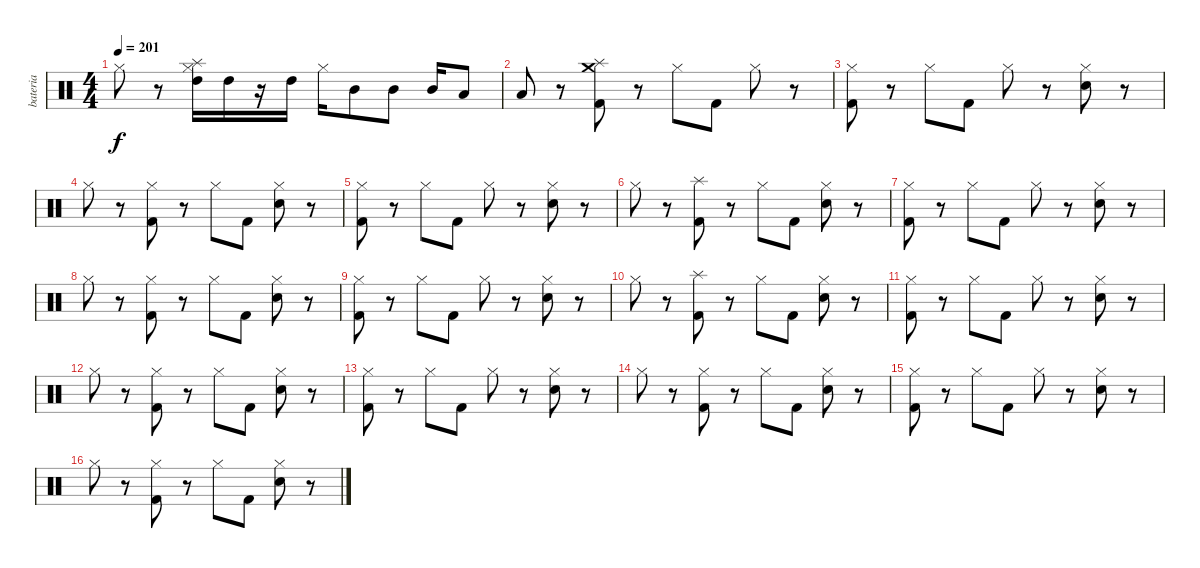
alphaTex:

\track ("bateria" "bateria") {instrument percussion}
\staff {score}
\articulation defaults
\ts (4 4)
\tempo 201
\clef neutral
\ks c "Hi-Hat (closed)".8{dy f}
r.8 ("High Tom (hit)" "Splash (hit)" "Hi-Hat (closed)").16 "High Tom (hit)".16 r.16 "High Tom (hit)".16 "Hi-Hat (closed)".16 "Mid Tom (hit)".8 "Mid Tom (hit)".8 "Mid Tom (hit)".16 "Low Tom (hit)".8 |
"Low Tom (hit)".8 r.8 ("Crash medium (hit)" "Splash (hit)" "Kick (hit) 2").8 r.8 "Hi-Hat (closed)".8 "Kick (hit) 2".8 "Hi-Hat (closed)".8 r.8 |
("Hi-Hat (closed)" "Kick (hit) 2").8 r.8 "Hi-Hat (closed)".8 "Kick (hit) 2".8 "Hi-Hat (closed)".8 r.8 ("Hi-Hat (closed)" "Electric Snare (hit)").8 r.8 |
"Hi-Hat (closed)".8 r.8 ("Hi-Hat (closed)" "Kick (hit) 2").8 r.8 "Hi-Hat (closed)".8 "Kick (hit) 2".8 ("Hi-Hat (closed)" "Electric Snare (hit)").8 r.8 |
("Hi-Hat (closed)" "Kick (hit) 2").8 r.8 "Hi-Hat (closed)".8 "Kick (hit) 2".8 "Hi-Hat (closed)".8 r.8 ("Hi-Hat (closed)" "Electric Snare (hit)").8 r.8 |
"Hi-Hat (closed)".8 r.8 ("Splash (hit)" "Kick (hit) 2").8 r.8 "Hi-Hat (closed)".8 "Kick (hit) 2".8 ("Hi-Hat (closed)" "Electric Snare (hit)").8 r.8 |
("Hi-Hat (closed)" "Kick (hit) 2").8 r.8 "Hi-Hat (closed)".8 "Kick (hit) 2".8 "Hi-Hat (closed)".8 r.8 ("Hi-Hat (closed)" "Electric Snare (hit)").8 r.8 |
"Hi-Hat (closed)".8 r.8 ("Hi-Hat (closed)" "Kick (hit) 2").8 r.8 "Hi-Hat (closed)".8 "Kick (hit) 2".8 ("Hi-Hat (closed)" "Electric Snare (hit)").8 r.8 |
("Hi-Hat (closed)" "Kick (hit) 2").8 r.8 "Hi-Hat (closed)".8 "Kick (hit) 2".8 "Hi-Hat (closed)".8 r.8 ("Hi-Hat (closed)" "Electric Snare (hit)").8 r.8 |
"Hi-Hat (closed)".8 r.8 ("Splash (hit)" "Kick (hit) 2").8 r.8 "Hi-Hat (closed)".8 "Kick (hit) 2".8 ("Hi-Hat (closed)" "Electric Snare (hit)").8 r.8 |
("Hi-Hat (closed)" "Kick (hit) 2").8 r.8 "Hi-Hat (closed)".8 "Kick (hit) 2".8 "Hi-Hat (closed)".8 r.8 ("Hi-Hat (closed)" "Electric Snare (hit)").8 r.8 |
"Hi-Hat (closed)".8 r.8 ("Hi-Hat (closed)" "Kick (hit) 2").8 r.8 "Hi-Hat (closed)".8 "Kick (hit) 2".8 ("Hi-Hat (closed)" "Electric Snare (hit)").8 r.8 |
("Hi-Hat (closed)" "Kick (hit) 2").8 r.8 "Hi-Hat (closed)".8 "Kick (hit) 2".8 "Hi-Hat (closed)".8 r.8 ("Hi-Hat (closed)" "Electric Snare (hit)").8 r.8 |
"Hi-Hat (closed)".8 r.8 ("Hi-Hat (closed)" "Kick (hit) 2").8 r.8 "Hi-Hat (closed)".8 "Kick (hit) 2".8 ("Hi-Hat (closed)" "Electric Snare (hit)").8 r.8 |
("Hi-Hat (closed)" "Kick (hit) 2").8 r.8 "Hi-Hat (closed)".8 "Kick (hit) 2".8 "Hi-Hat (closed)".8 r.8 ("Hi-Hat (closed)" "Electric Snare (hit)").8 r.8 |
"Hi-Hat (closed)".8 r.8 ("Hi-Hat (closed)" "Kick (hit) 2").8 r.8 "Hi-Hat (closed)".8 "Kick (hit) 2".8 ("Hi-Hat (closed)" "Electric Snare (hit)").8 r.8
